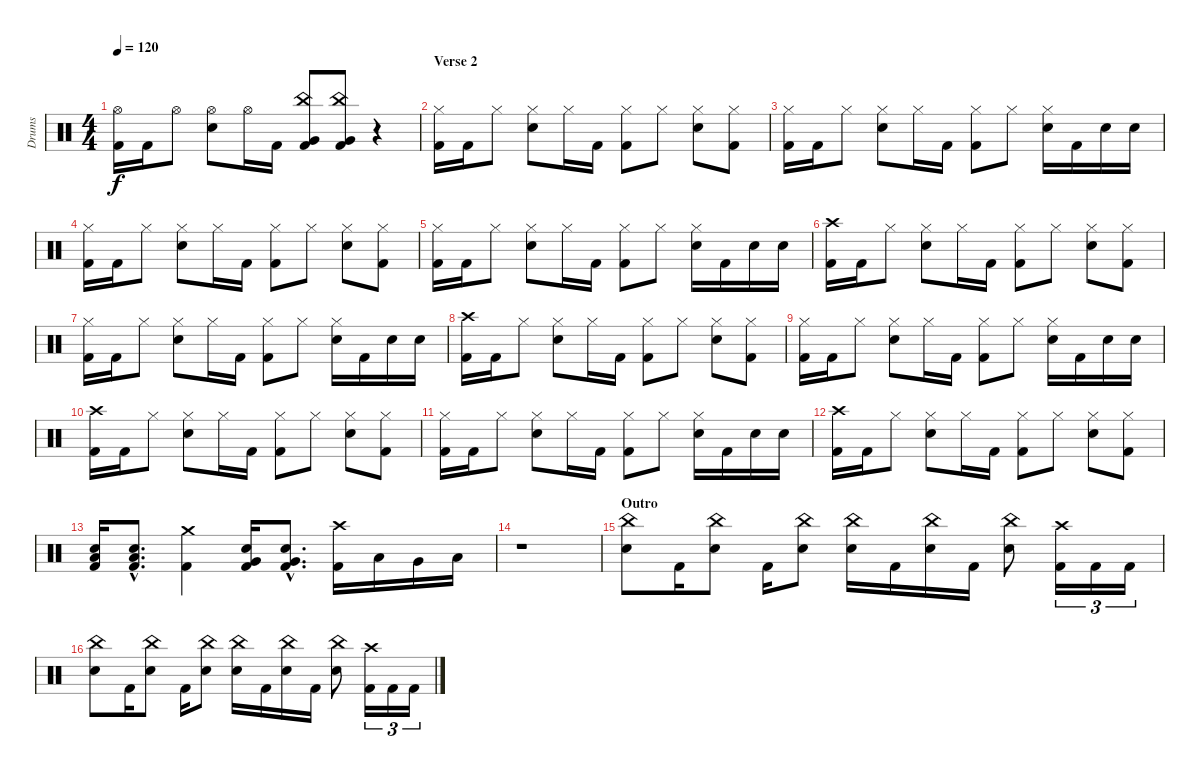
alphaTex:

\track ("Drums" "Drums") {instrument percussion}
\staff {score}
\articulation defaults
\ts (4 4)
\tempo 120
\clef neutral
\ks c
("Hi-Hat (open)" "Kick (hit) 2").16{dy f} "Kick (hit) 2".16 "Hi-Hat (open)".8 ("Hi-Hat (open)" "Electric Snare (hit)").8 "Hi-Hat (open)".16 "Kick (hit) 2".16 ("China (hit)" "Very Low Tom (hit)" "Kick (hit) 2").8 ("China (hit)" "Very Low Tom (hit)" "Kick (hit) 2").8 r.4 |
\section ("" "Verse 2")
("Hi-Hat (closed)" "Kick (hit) 2").16 "Kick (hit) 2".16 "Hi-Hat (closed)".8 ("Hi-Hat (closed)" "Electric Snare (hit)").8 "Hi-Hat (closed)".16 "Kick (hit) 2".16 ("Hi-Hat (closed)" "Kick (hit) 2").8 "Hi-Hat (closed)".8 ("Hi-Hat (closed)" "Electric Snare (hit)").8 ("Hi-Hat (closed)" "Kick (hit) 2").8 |
("Hi-Hat (closed)" "Kick (hit) 2").16 "Kick (hit) 2".16 "Hi-Hat (closed)".8 ("Hi-Hat (closed)" "Electric Snare (hit)").8 "Hi-Hat (closed)".16 "Kick (hit) 2".16 ("Hi-Hat (closed)" "Kick (hit) 2").8 "Hi-Hat (closed)".8 ("Hi-Hat (closed)" "Electric Snare (hit)").16 "Kick (hit) 2".16 "Electric Snare (hit)".16 "Electric Snare (hit)".16 |
("Hi-Hat (closed)" "Kick (hit) 2").16 "Kick (hit) 2".16 "Hi-Hat (closed)".8 ("Hi-Hat (closed)" "Electric Snare (hit)").8 "Hi-Hat (closed)".16 "Kick (hit) 2".16 ("Hi-Hat (closed)" "Kick (hit) 2").8 "Hi-Hat (closed)".8 ("Hi-Hat (closed)" "Electric Snare (hit)").8 ("Hi-Hat (closed)" "Kick (hit) 2").8 |
("Hi-Hat (closed)" "Kick (hit) 2").16 "Kick (hit) 2".16 "Hi-Hat (closed)".8 ("Hi-Hat (closed)" "Electric Snare (hit)").8 "Hi-Hat (closed)".16 "Kick (hit) 2".16 ("Hi-Hat (closed)" "Kick (hit) 2").8 "Hi-Hat (closed)".8 ("Hi-Hat (closed)" "Electric Snare (hit)").16 "Kick (hit) 2".16 "Electric Snare (hit)".16 "Electric Snare (hit)".16 |
("Crash high (hit)" "Kick (hit) 2").16 "Kick (hit) 2".16 "Hi-Hat (closed)".8 ("Hi-Hat (closed)" "Electric Snare (hit)").8 "Hi-Hat (closed)".16 "Kick (hit) 2".16 ("Hi-Hat (closed)" "Kick (hit) 2").8 "Hi-Hat (closed)".8 ("Hi-Hat (closed)" "Electric Snare (hit)").8 ("Hi-Hat (closed)" "Kick (hit) 2").8 |
("Hi-Hat (closed)" "Kick (hit) 2").16 "Kick (hit) 2".16 "Hi-Hat (closed)".8 ("Hi-Hat (closed)" "Electric Snare (hit)").8 "Hi-Hat (closed)".16 "Kick (hit) 2".16 ("Hi-Hat (closed)" "Kick (hit) 2").8 "Hi-Hat (closed)".8 ("Hi-Hat (closed)" "Electric Snare (hit)").16 "Kick (hit) 2".16 "Electric Snare (hit)".16 "Electric Snare (hit)".16 |
("Crash high (hit)" "Kick (hit) 2").16 "Kick (hit) 2".16 "Hi-Hat (closed)".8 ("Hi-Hat (closed)" "Electric Snare (hit)").8 "Hi-Hat (closed)".16 "Kick (hit) 2".16 ("Hi-Hat (closed)" "Kick (hit) 2").8 "Hi-Hat (closed)".8 ("Hi-Hat (closed)" "Electric Snare (hit)").8 ("Hi-Hat (closed)" "Kick (hit) 2").8 |
("Hi-Hat (closed)" "Kick (hit) 2").16 "Kick (hit) 2".16 "Hi-Hat (closed)".8 ("Hi-Hat (closed)" "Electric Snare (hit)").8 "Hi-Hat (closed)".16 "Kick (hit) 2".16 ("Hi-Hat (closed)" "Kick (hit) 2").8 "Hi-Hat (closed)".8 ("Hi-Hat (closed)" "Electric Snare (hit)").16 "Kick (hit) 2".16 "Electric Snare (hit)".16 "Electric Snare (hit)".16 |
("Crash high (hit)" "Kick (hit) 2").16 "Kick (hit) 2".16 "Hi-Hat (closed)".8 ("Hi-Hat (closed)" "Electric Snare (hit)").8 "Hi-Hat (closed)".16 "Kick (hit) 2".16 ("Hi-Hat (closed)" "Kick (hit) 2").8 "Hi-Hat (closed)".8 ("Hi-Hat (closed)" "Electric Snare (hit)").8 ("Hi-Hat (closed)" "Kick (hit) 2").8 |
("Hi-Hat (closed)" "Kick (hit) 2").16 "Kick (hit) 2".16 "Hi-Hat (closed)".8 ("Hi-Hat (closed)" "Electric Snare (hit)").8 "Hi-Hat (closed)".16 "Kick (hit) 2".16 ("Hi-Hat (closed)" "Kick (hit) 2").8 "Hi-Hat (closed)".8 ("Hi-Hat (closed)" "Electric Snare (hit)").16 "Kick (hit) 2".16 "Electric Snare (hit)".16 "Electric Snare (hit)".16 |
("Crash high (hit)" "Kick (hit) 2").16 "Kick (hit) 2".16 "Hi-Hat (closed)".8 ("Hi-Hat (closed)" "Electric Snare (hit)").8 "Hi-Hat (closed)".16 "Kick (hit) 2".16 ("Hi-Hat (closed)" "Kick (hit) 2").8 "Hi-Hat (closed)".8 ("Hi-Hat (closed)" "Electric Snare (hit)").8 ("Hi-Hat (closed)" "Kick (hit) 2").8 |
("Electric Snare (hit)" "Low Floor Tom (hit)" "Kick (hit) 2").16 ("Electric Snare (hit)"{hac} "Low Floor Tom (hit)"{hac} "Kick (hit) 2"{hac}).8{d} ("Crash medium (hit)" "Kick (hit) 2").4 ("Electric Snare (hit)" "Very Low Tom (hit)" "Kick (hit) 2").16 ("Electric Snare (hit)"{hac} "Very Low Tom (hit)"{hac} "Kick (hit) 2"{hac}).8{d} ("Crash high (hit)" "Kick (hit) 2").16 "Low Tom (hit)".16 "Very Low Tom (hit)".16 "Low Floor Tom (hit)".16 |
r.1 |
\section ("" "Outro")
("China (hit)" "Electric Snare (hit)").8 "Kick (hit) 2".16 ("China (hit)" "Electric Snare (hit)").8 "Kick (hit) 2".16 ("China (hit)" "Electric Snare (hit)").8 ("China (hit)" "Electric Snare (hit)").16 "Kick (hit) 2".16 ("China (hit)" "Electric Snare (hit)").16 "Kick (hit) 2".16 ("China (hit)" "Electric Snare (hit)").8 ("Crash high (hit)" "Kick (hit) 2").16{tu (3 2)} "Kick (hit) 2".16{tu (3 2)} "Kick (hit) 2".16{tu (3 2)} |
("China (hit)" "Electric Snare (hit)").8 "Kick (hit) 2".16 ("China (hit)" "Electric Snare (hit)").8 "Kick (hit) 2".16 ("China (hit)" "Electric Snare (hit)").8 ("China (hit)" "Electric Snare (hit)").16 "Kick (hit) 2".16 ("China (hit)" "Electric Snare (hit)").16 "Kick (hit) 2".16 ("China (hit)" "Electric Snare (hit)").8 ("Crash high (hit)" "Kick (hit) 2").16{tu (3 2)} "Kick (hit) 2".16{tu (3 2)} "Kick (hit) 2".16{tu (3 2)}
